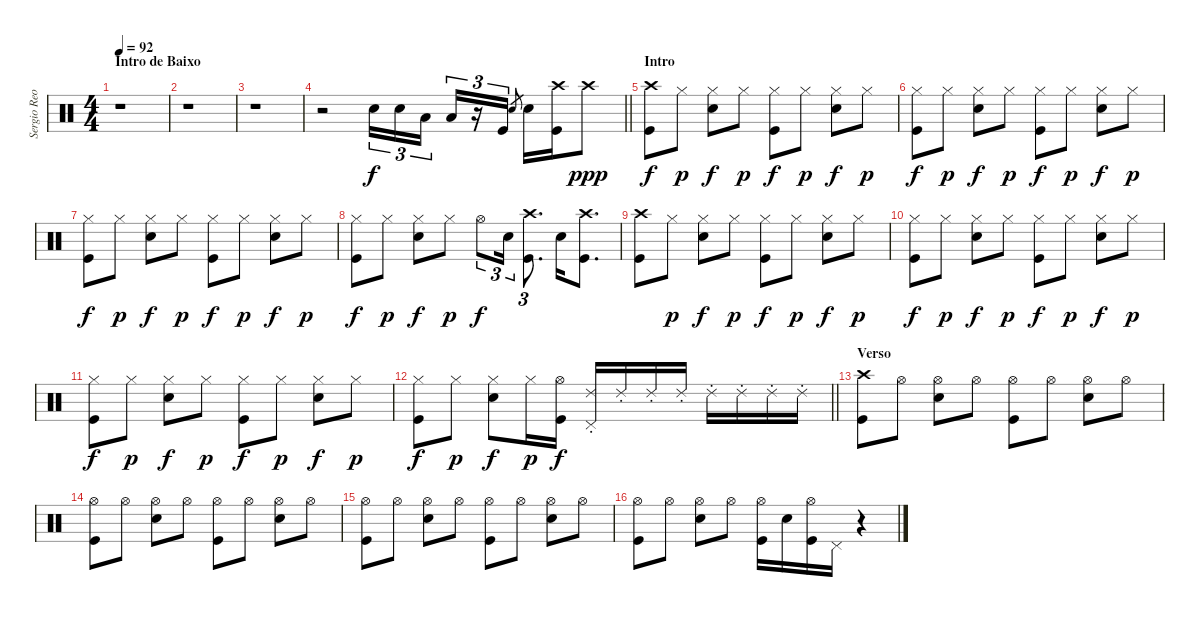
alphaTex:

\track ("Sergio Reoli" "Sergio Reo") {instrument percussion}
\staff {score}
\articulation defaults
\ts (4 4)
\section ("" "Intro de Baixo")
\tempo 92
\clef neutral
\ks c
r.1{dy f} |
r.1 |
r.1 |
\barLineRight lightlight
r.2 "Electric Snare (hit)".16{tu (3 2)} "Electric Snare (hit)".16{tu (3 2)} "Low Tom (hit)".16{tu (3 2)} "Low Tom (hit)".16{tu (3 2)} r.16{tu (3 2)} "Kick (hit)".16{tu (3 2)} "Electric Snare (hit)".8{gr} "Electric Snare (hit)".16 ("Crash high (hit)" "Kick (hit)").16 "Crash high (hit)".8{dy ppp} |
\section ("" "Intro")
("Crash high (hit)" "Kick (hit)").8{dy f} "Hi-Hat (closed)".8{dy p} ("Hi-Hat (closed)" "Electric Snare (hit)").8{dy f} "Hi-Hat (closed)".8{dy p} ("Hi-Hat (closed)" "Kick (hit)").8{dy f} "Hi-Hat (closed)".8{dy p} ("Hi-Hat (closed)" "Electric Snare (hit)").8{dy f} "Hi-Hat (closed)".8{dy p} |
("Hi-Hat (closed)" "Kick (hit)").8{dy f} "Hi-Hat (closed)".8{dy p} ("Hi-Hat (closed)" "Electric Snare (hit)").8{dy f} "Hi-Hat (closed)".8{dy p} ("Hi-Hat (closed)" "Kick (hit)").8{dy f} "Hi-Hat (closed)".8{dy p} ("Hi-Hat (closed)" "Electric Snare (hit)").8{dy f} "Hi-Hat (closed)".8{dy p} |
("Hi-Hat (closed)" "Kick (hit)").8{dy f} "Hi-Hat (closed)".8{dy p} ("Hi-Hat (closed)" "Electric Snare (hit)").8{dy f} "Hi-Hat (closed)".8{dy p} ("Hi-Hat (closed)" "Kick (hit)").8{dy f} "Hi-Hat (closed)".8{dy p} ("Hi-Hat (closed)" "Electric Snare (hit)").8{dy f} "Hi-Hat (closed)".8{dy p} |
("Hi-Hat (closed)" "Kick (hit)").8{dy f} "Hi-Hat (closed)".8{dy p} ("Hi-Hat (closed)" "Electric Snare (hit)").8{dy f} "Hi-Hat (closed)".8{dy p} "Hi-Hat (open)".8{tu (3 2) dy f} "Electric Snare (hit)".16{tu (3 2)} ("Crash high (hit)" "Kick (hit)").8{d tu (3 2)} "Electric Snare (hit)".16 ("Crash high (hit)" "Kick (hit)").8{d} |
("Crash high (hit)" "Kick (hit)").8 "Hi-Hat (closed)".8{dy p} ("Hi-Hat (closed)" "Electric Snare (hit)").8{dy f} "Hi-Hat (closed)".8{dy p} ("Hi-Hat (closed)" "Kick (hit)").8{dy f} "Hi-Hat (closed)".8{dy p} ("Hi-Hat (closed)" "Electric Snare (hit)").8{dy f} "Hi-Hat (closed)".8{dy p} |
("Hi-Hat (closed)" "Kick (hit)").8{dy f} "Hi-Hat (closed)".8{dy p} ("Hi-Hat (closed)" "Electric Snare (hit)").8{dy f} "Hi-Hat (closed)".8{dy p} ("Hi-Hat (closed)" "Kick (hit)").8{dy f} "Hi-Hat (closed)".8{dy p} ("Hi-Hat (closed)" "Electric Snare (hit)").8{dy f} "Hi-Hat (closed)".8{dy p} |
("Hi-Hat (closed)" "Kick (hit)").8{dy f} "Hi-Hat (closed)".8{dy p} ("Hi-Hat (closed)" "Electric Snare (hit)").8{dy f} "Hi-Hat (closed)".8{dy p} ("Hi-Hat (closed)" "Kick (hit)").8{dy f} "Hi-Hat (closed)".8{dy p} ("Hi-Hat (closed)" "Electric Snare (hit)").8{dy f} "Hi-Hat (closed)".8{dy p} |
\barLineRight lightlight
("Hi-Hat (closed)" "Kick (hit)").8{dy f} "Hi-Hat (closed)".8{dy p} ("Hi-Hat (closed)" "Electric Snare (hit)").8{dy f} "Hi-Hat (closed)".16{dy p} ("Hi-Hat (open)" "Kick (hit)").16{dy f} ("Ride (choke) 2" "Pedal Hi-Hat (hit)").16 "Ride (choke) 2".16 "Ride (choke) 2".16 "Ride (choke) 2".16 "Ride (choke) 2".16 "Ride (choke) 2".16 "Ride (choke) 2".16 "Ride (choke) 2".16 |
\section ("" "Verso")
("Crash high (hit)" "Kick (hit)").8 "Hi-Hat (open)".8 ("Hi-Hat (open)" "Electric Snare (hit)").8 "Hi-Hat (open)".8 ("Hi-Hat (open)" "Kick (hit)").8 "Hi-Hat (open)".8 ("Hi-Hat (open)" "Electric Snare (hit)").8 "Hi-Hat (open)".8 |
("Hi-Hat (open)" "Kick (hit)").8 "Hi-Hat (open)".8 ("Hi-Hat (open)" "Electric Snare (hit)").8 "Hi-Hat (open)".8 ("Hi-Hat (open)" "Kick (hit)").8 "Hi-Hat (open)".8 ("Hi-Hat (open)" "Electric Snare (hit)").8 "Hi-Hat (open)".8 |
("Hi-Hat (open)" "Kick (hit)").8 "Hi-Hat (open)".8 ("Hi-Hat (open)" "Electric Snare (hit)").8 "Hi-Hat (open)".8 ("Hi-Hat (open)" "Kick (hit)").8 "Hi-Hat (open)".8 ("Hi-Hat (open)" "Electric Snare (hit)").8 "Hi-Hat (open)".8 |
("Hi-Hat (open)" "Kick (hit)").8 "Hi-Hat (open)".8 ("Hi-Hat (open)" "Electric Snare (hit)").8 "Hi-Hat (open)".8 ("Hi-Hat (open)" "Kick (hit)").16 "Electric Snare (hit)".16 ("Hi-Hat (open)" "Kick (hit)").16 "Pedal Hi-Hat (hit)".16 r.4
